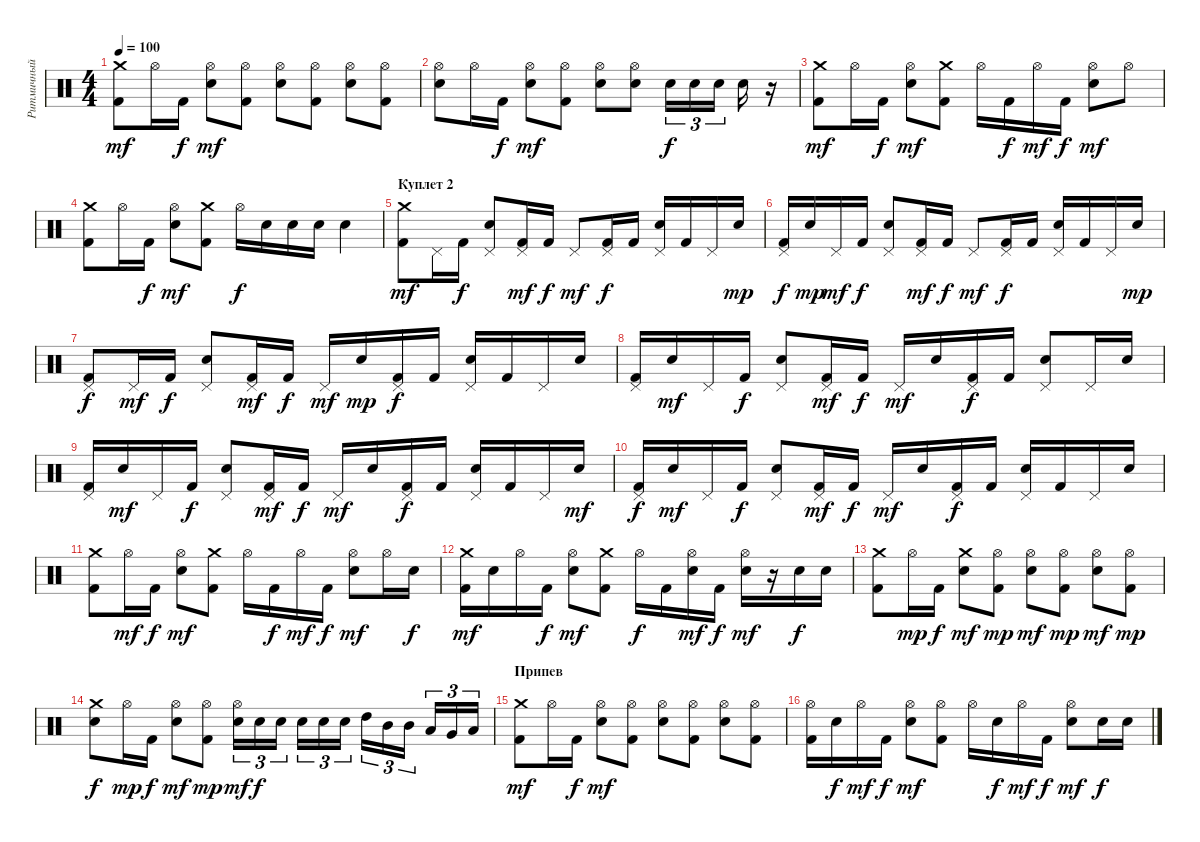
\track ("Ритмичный Вова" "Ритмичный ") {instrument percussion}
\staff {score}
\articulation defaults
\ts (4 4)
\tempo 100
\clef neutral
\ks c
("Crash medium (hit)" "Kick (hit) 2").8{dy mf} "Hi-Hat (open)".16 "Kick (hit) 2".16{dy f} ("Hi-Hat (open)" "Electric Snare (hit)").8{dy mf} ("Hi-Hat (open)" "Kick (hit) 2").8 ("Hi-Hat (open)" "Electric Snare (hit)").8 ("Hi-Hat (open)" "Kick (hit) 2").8 ("Hi-Hat (open)" "Electric Snare (hit)").8 ("Hi-Hat (open)" "Kick (hit) 2").8 |
("Hi-Hat (open)" "Electric Snare (hit)").8 "Hi-Hat (open)".16 "Kick (hit) 2".16{dy f} ("Hi-Hat (open)" "Electric Snare (hit)").8{dy mf} ("Hi-Hat (open)" "Kick (hit) 2").8 ("Hi-Hat (open)" "Electric Snare (hit)").8 ("Hi-Hat (open)" "Electric Snare (hit)").8 "Electric Snare (hit)".16{tu (3 2) dy f} "Electric Snare (hit)".16{tu (3 2)} "Electric Snare (hit)".16{tu (3 2)} "Electric Snare (hit)".16 r.16 |
("Crash medium (hit)" "Kick (hit) 2").8{dy mf} "Hi-Hat (open)".16 "Kick (hit) 2".16{dy f} ("Hi-Hat (open)" "Electric Snare (hit)").8{dy mf} ("Crash medium (hit)" "Kick (hit) 2").8 "Hi-Hat (open)".16 "Kick (hit) 2".16{dy f} "Hi-Hat (open)".16{dy mf} "Kick (hit) 2".16{dy f} ("Hi-Hat (open)" "Electric Snare (hit)").8{dy mf} "Hi-Hat (open)".8 |
("Crash medium (hit)" "Kick (hit) 2").8 "Hi-Hat (open)".16 "Kick (hit) 2".16{dy f} ("Hi-Hat (open)" "Electric Snare (hit)").8{dy mf} ("Crash medium (hit)" "Kick (hit) 2").8 "Hi-Hat (open)".16{dy f} "Electric Snare (hit)".16 "Electric Snare (hit)".16 "Electric Snare (hit)".16 "Electric Snare (hit)".4 |
\section ("" "Куплет 2")
("Crash medium (hit)" "Kick (hit) 2").8{dy mf} "Pedal Hi-Hat (hit)".16 "Kick (hit) 2".16{dy f} ("Pedal Hi-Hat (hit)" "Electric Snare (hit)").8 ("Pedal Hi-Hat (hit)" "Kick (hit) 2").16{dy mf} "Kick (hit) 2".16{dy f} "Pedal Hi-Hat (hit)".8{dy mf} ("Pedal Hi-Hat (hit)" "Kick (hit) 2").16{dy f} "Kick (hit) 2".16 ("Pedal Hi-Hat (hit)" "Electric Snare (hit)").16 "Kick (hit) 2".16 "Pedal Hi-Hat (hit)".16 "Electric Snare (hit)".16{dy mp} |
("Pedal Hi-Hat (hit)" "Kick (hit) 2").16{dy f} "Electric Snare (hit)".16{dy mp} "Pedal Hi-Hat (hit)".16{dy mf} "Kick (hit) 2".16{dy f} ("Pedal Hi-Hat (hit)" "Electric Snare (hit)").8 ("Pedal Hi-Hat (hit)" "Kick (hit) 2").16{dy mf} "Kick (hit) 2".16{dy f} "Pedal Hi-Hat (hit)".8{dy mf} ("Pedal Hi-Hat (hit)" "Kick (hit) 2").16{dy f} "Kick (hit) 2".16 ("Pedal Hi-Hat (hit)" "Electric Snare (hit)").16 "Kick (hit) 2".16 "Pedal Hi-Hat (hit)".16 "Electric Snare (hit)".16{dy mp} |
("Pedal Hi-Hat (hit)" "Kick (hit) 2").8{dy f} "Pedal Hi-Hat (hit)".16{dy mf} "Kick (hit) 2".16{dy f} ("Pedal Hi-Hat (hit)" "Electric Snare (hit)").8 ("Pedal Hi-Hat (hit)" "Kick (hit) 2").16{dy mf} "Kick (hit) 2".16{dy f} "Pedal Hi-Hat (hit)".16{dy mf} "Electric Snare (hit)".16{dy mp} ("Pedal Hi-Hat (hit)" "Kick (hit) 2").16{dy f} "Kick (hit) 2".16 ("Pedal Hi-Hat (hit)" "Electric Snare (hit)").16 "Kick (hit) 2".16 "Pedal Hi-Hat (hit)".16 "Electric Snare (hit)".16 |
("Pedal Hi-Hat (hit)" "Kick (hit) 2").16 "Electric Snare (hit)".16{dy mf} "Pedal Hi-Hat (hit)".16 "Kick (hit) 2".16{dy f} ("Pedal Hi-Hat (hit)" "Electric Snare (hit)").8 ("Pedal Hi-Hat (hit)" "Kick (hit) 2").16{dy mf} "Kick (hit) 2".16{dy f} "Pedal Hi-Hat (hit)".16{dy mf} "Electric Snare (hit)".16 ("Pedal Hi-Hat (hit)" "Kick (hit) 2").16{dy f} "Kick (hit) 2".16 ("Pedal Hi-Hat (hit)" "Electric Snare (hit)").8 "Pedal Hi-Hat (hit)".16 "Electric Snare (hit)".16 |
("Pedal Hi-Hat (hit)" "Kick (hit) 2").16 "Electric Snare (hit)".16{dy mf} "Pedal Hi-Hat (hit)".16 "Kick (hit) 2".16{dy f} ("Pedal Hi-Hat (hit)" "Electric Snare (hit)").8 ("Pedal Hi-Hat (hit)" "Kick (hit) 2").16{dy mf} "Kick (hit) 2".16{dy f} "Pedal Hi-Hat (hit)".16{dy mf} "Electric Snare (hit)".16 ("Pedal Hi-Hat (hit)" "Kick (hit) 2").16{dy f} "Kick (hit) 2".16 ("Pedal Hi-Hat (hit)" "Electric Snare (hit)").16 "Kick (hit) 2".16 "Pedal Hi-Hat (hit)".16 "Electric Snare (hit)".16{dy mf} |
("Pedal Hi-Hat (hit)" "Kick (hit) 2").16{dy f} "Electric Snare (hit)".16{dy mf} "Pedal Hi-Hat (hit)".16 "Kick (hit) 2".16{dy f} ("Pedal Hi-Hat (hit)" "Electric Snare (hit)").8 ("Pedal Hi-Hat (hit)" "Kick (hit) 2").16{dy mf} "Kick (hit) 2".16{dy f} "Pedal Hi-Hat (hit)".16{dy mf} "Electric Snare (hit)".16 ("Pedal Hi-Hat (hit)" "Kick (hit) 2").16{dy f} "Kick (hit) 2".16 ("Pedal Hi-Hat (hit)" "Electric Snare (hit)").16 "Kick (hit) 2".16 "Pedal Hi-Hat (hit)".16 "Electric Snare (hit)".16 |
("Crash medium (hit)" "Kick (hit) 2").8 "Hi-Hat (open)".16{dy mf} "Kick (hit) 2".16{dy f} ("Hi-Hat (open)" "Electric Snare (hit)").8{dy mf} ("Crash medium (hit)" "Kick (hit) 2").8 "Hi-Hat (open)".16 "Kick (hit) 2".16{dy f} "Hi-Hat (open)".16{dy mf} "Kick (hit) 2".16{dy f} ("Hi-Hat (open)" "Electric Snare (hit)").8{dy mf} "Hi-Hat (open)".16 "Electric Snare (hit)".16{dy f} |
("Crash medium (hit)" "Kick (hit) 2").16{dy mf} "Electric Snare (hit)".16 "Hi-Hat (open)".16 "Kick (hit) 2".16{dy f} ("Hi-Hat (open)" "Electric Snare (hit)").8{dy mf} ("Crash medium (hit)" "Kick (hit) 2").8 "Hi-Hat (open)".16{dy f} "Kick (hit) 2".16 ("Hi-Hat (open)" "Electric Snare (hit)").16{dy mf} "Kick (hit) 2".16{dy f} ("Hi-Hat (open)" "Electric Snare (hit)").16{dy mf} r.16 "Electric Snare (hit)".16{dy f} "Electric Snare (hit)".16 |
("Crash medium (hit)" "Kick (hit) 2").8 "Hi-Hat (open)".16{dy mp} "Kick (hit) 2".16{dy f} ("Crash medium (hit)" "Electric Snare (hit)").8{dy mf} ("Hi-Hat (open)" "Kick (hit) 2").8{dy mp} ("Hi-Hat (open)" "Electric Snare (hit)").8{dy mf} ("Hi-Hat (open)" "Kick (hit) 2").8{dy mp} ("Hi-Hat (open)" "Electric Snare (hit)").8{dy mf} ("Hi-Hat (open)" "Kick (hit) 2").8{dy mp} |
("Crash medium (hit)" "Electric Snare (hit)").8{dy f} "Hi-Hat (open)".16{dy mp} "Kick (hit) 2".16{dy f} ("Hi-Hat (open)" "Electric Snare (hit)").8{dy mf} ("Hi-Hat (open)" "Kick (hit) 2").8{dy mp} ("Hi-Hat (open)" "Electric Snare (hit)").16{tu (3 2) dy mf} "Electric Snare (hit)".16{tu (3 2) dy f} "Electric Snare (hit)".16{tu (3 2)} "Electric Snare (hit)".16{tu (3 2)} "Electric Snare (hit)".16{tu (3 2)} "Electric Snare (hit)".16{tu (3 2)} "High Tom (hit)".16{tu (3 2)} "Mid Tom (hit)".16{tu (3 2)} "Mid Tom (hit)".16{tu (3 2)} "Low Tom (hit)".16{tu (3 2)} "Very Low Tom (hit)".16{tu (3 2)} "Low Floor Tom (hit)".16{tu (3 2)} |
\section ("" "Припев")
("Crash medium (hit)" "Kick (hit) 2").8{dy mf} "Hi-Hat (open)".16 "Kick (hit) 2".16{dy f} ("Hi-Hat (open)" "Electric Snare (hit)").8{dy mf} ("Hi-Hat (open)" "Kick (hit) 2").8 ("Hi-Hat (open)" "Electric Snare (hit)").8 ("Hi-Hat (open)" "Kick (hit) 2").8 ("Hi-Hat (open)" "Electric Snare (hit)").8 ("Hi-Hat (open)" "Kick (hit) 2").8 |
("Hi-Hat (open)" "Kick (hit) 2").16 "Electric Snare (hit)".16{dy f} "Hi-Hat (open)".16{dy mf} "Kick (hit) 2".16{dy f} ("Hi-Hat (open)" "Electric Snare (hit)").8{dy mf} ("Hi-Hat (open)" "Kick (hit) 2").8 "Hi-Hat (open)".16 "Electric Snare (hit)".16{dy f} "Hi-Hat (open)".16{dy mf} "Kick (hit) 2".16{dy f} ("Hi-Hat (open)" "Electric Snare (hit)").8{dy mf} "Electric Snare (hit)".16{dy f} "Electric Snare (hit)".16
